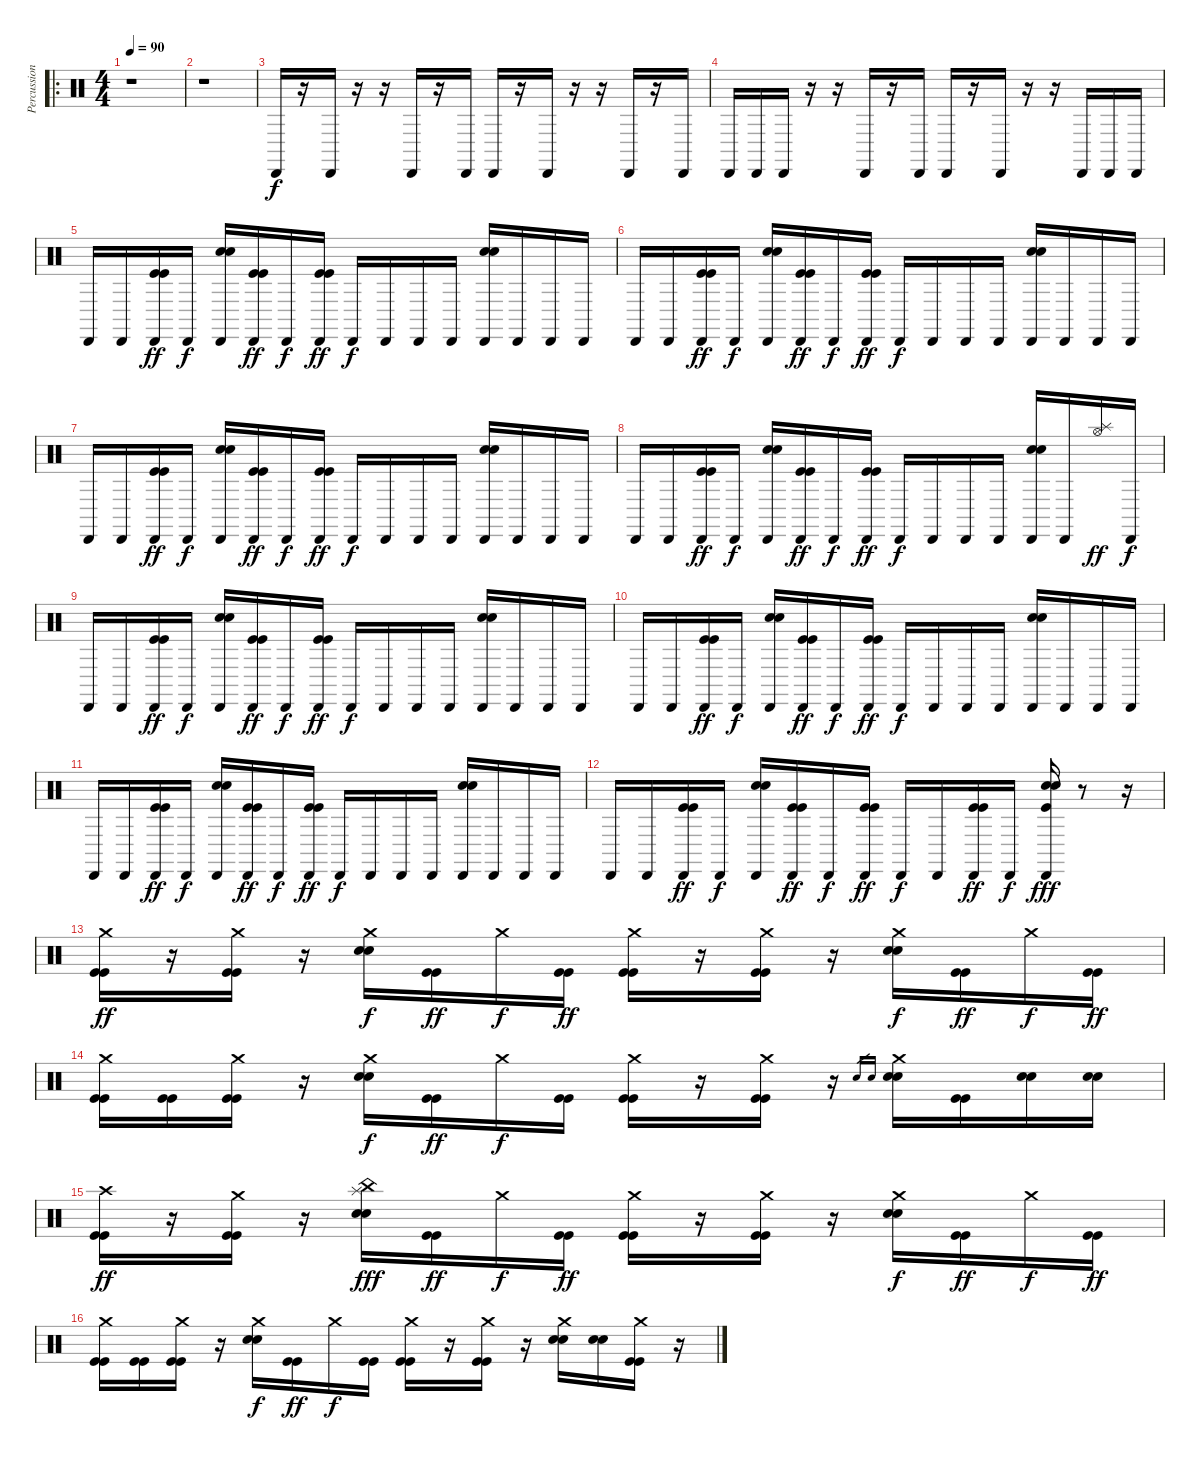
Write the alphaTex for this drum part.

\track ("Percussions" "Percussion") {instrument percussion}
\staff {score}
\articulation defaults
\ro
\ts (4 4)
\tempo 90
\clef neutral
\ks c
r.1{dy f} |
r.1 |
"Cabasa (hit)".16 r.16 "Cabasa (hit)".16 r.16 r.16 "Cabasa (hit)".16 r.16 "Cabasa (hit)".16 "Cabasa (hit)".16 r.16 "Cabasa (hit)".16 r.16 r.16 "Cabasa (hit)".16 r.16 "Cabasa (hit)".16 |
"Cabasa (hit)".16 "Cabasa (hit)".16 "Cabasa (hit)".16 r.16 r.16 "Cabasa (hit)".16 r.16 "Cabasa (hit)".16 "Cabasa (hit)".16 r.16 "Cabasa (hit)".16 r.16 r.16 "Cabasa (hit)".16 "Cabasa (hit)".16 "Cabasa (hit)".16 |
"Cabasa (hit)".16 "Cabasa (hit)".16 ("Cabasa (hit)" "Kick (hit)" "Kick (hit)").16{dy ff} "Cabasa (hit)".16{dy f} ("Cabasa (hit)" "Electric Snare (hit)" "Electric Snare (hit)").16 ("Cabasa (hit)" "Kick (hit)" "Kick (hit)").16{dy ff} "Cabasa (hit)".16{dy f} ("Cabasa (hit)" "Kick (hit)" "Kick (hit)").16{dy ff} "Cabasa (hit)".16{dy f} "Cabasa (hit)".16 "Cabasa (hit)".16 "Cabasa (hit)".16 ("Cabasa (hit)" "Electric Snare (hit)" "Electric Snare (hit)").16 "Cabasa (hit)".16 "Cabasa (hit)".16 "Cabasa (hit)".16 |
"Cabasa (hit)".16 "Cabasa (hit)".16 ("Cabasa (hit)" "Kick (hit)" "Kick (hit)").16{dy ff} "Cabasa (hit)".16{dy f} ("Cabasa (hit)" "Electric Snare (hit)" "Electric Snare (hit)").16 ("Cabasa (hit)" "Kick (hit)" "Kick (hit)").16{dy ff} "Cabasa (hit)".16{dy f} ("Cabasa (hit)" "Kick (hit)" "Kick (hit)").16{dy ff} "Cabasa (hit)".16{dy f} "Cabasa (hit)".16 "Cabasa (hit)".16 "Cabasa (hit)".16 ("Cabasa (hit)" "Electric Snare (hit)" "Electric Snare (hit)").16 "Cabasa (hit)".16 "Cabasa (hit)".16 "Cabasa (hit)".16 |
"Cabasa (hit)".16 "Cabasa (hit)".16 ("Cabasa (hit)" "Kick (hit)" "Kick (hit)").16{dy ff} "Cabasa (hit)".16{dy f} ("Cabasa (hit)" "Electric Snare (hit)" "Electric Snare (hit)").16 ("Cabasa (hit)" "Kick (hit)" "Kick (hit)").16{dy ff} "Cabasa (hit)".16{dy f} ("Cabasa (hit)" "Kick (hit)" "Kick (hit)").16{dy ff} "Cabasa (hit)".16{dy f} "Cabasa (hit)".16 "Cabasa (hit)".16 "Cabasa (hit)".16 ("Cabasa (hit)" "Electric Snare (hit)" "Electric Snare (hit)").16 "Cabasa (hit)".16 "Cabasa (hit)".16 "Cabasa (hit)".16 |
"Cabasa (hit)".16 "Cabasa (hit)".16 ("Cabasa (hit)" "Kick (hit)" "Kick (hit)").16{dy ff} "Cabasa (hit)".16{dy f} ("Cabasa (hit)" "Electric Snare (hit)" "Electric Snare (hit)").16 ("Cabasa (hit)" "Kick (hit)" "Kick (hit)").16{dy ff} "Cabasa (hit)".16{dy f} ("Cabasa (hit)" "Kick (hit)" "Kick (hit)").16{dy ff} "Cabasa (hit)".16{dy f} "Cabasa (hit)".16 "Cabasa (hit)".16 "Cabasa (hit)".16 ("Cabasa (hit)" "Electric Snare (hit)" "Electric Snare (hit)").16 "Cabasa (hit)".16 ("Splash (hit)" "Hi-Hat (open)").16{dy ff} "Cabasa (hit)".16{dy f} |
"Cabasa (hit)".16 "Cabasa (hit)".16 ("Cabasa (hit)" "Kick (hit)" "Kick (hit)").16{dy ff} "Cabasa (hit)".16{dy f} ("Cabasa (hit)" "Electric Snare (hit)" "Electric Snare (hit)").16 ("Cabasa (hit)" "Kick (hit)" "Kick (hit)").16{dy ff} "Cabasa (hit)".16{dy f} ("Cabasa (hit)" "Kick (hit)" "Kick (hit)").16{dy ff} "Cabasa (hit)".16{dy f} "Cabasa (hit)".16 "Cabasa (hit)".16 "Cabasa (hit)".16 ("Cabasa (hit)" "Electric Snare (hit)" "Electric Snare (hit)").16 "Cabasa (hit)".16 "Cabasa (hit)".16 "Cabasa (hit)".16 |
"Cabasa (hit)".16 "Cabasa (hit)".16 ("Cabasa (hit)" "Kick (hit)" "Kick (hit)").16{dy ff} "Cabasa (hit)".16{dy f} ("Cabasa (hit)" "Electric Snare (hit)" "Electric Snare (hit)").16 ("Cabasa (hit)" "Kick (hit)" "Kick (hit)").16{dy ff} "Cabasa (hit)".16{dy f} ("Cabasa (hit)" "Kick (hit)" "Kick (hit)").16{dy ff} "Cabasa (hit)".16{dy f} "Cabasa (hit)".16 "Cabasa (hit)".16 "Cabasa (hit)".16 ("Cabasa (hit)" "Electric Snare (hit)" "Electric Snare (hit)").16 "Cabasa (hit)".16 "Cabasa (hit)".16 "Cabasa (hit)".16 |
"Cabasa (hit)".16 "Cabasa (hit)".16 ("Cabasa (hit)" "Kick (hit)" "Kick (hit)").16{dy ff} "Cabasa (hit)".16{dy f} ("Cabasa (hit)" "Electric Snare (hit)" "Electric Snare (hit)").16 ("Cabasa (hit)" "Kick (hit)" "Kick (hit)").16{dy ff} "Cabasa (hit)".16{dy f} ("Cabasa (hit)" "Kick (hit)" "Kick (hit)").16{dy ff} "Cabasa (hit)".16{dy f} "Cabasa (hit)".16 "Cabasa (hit)".16 "Cabasa (hit)".16 ("Cabasa (hit)" "Electric Snare (hit)" "Electric Snare (hit)").16 "Cabasa (hit)".16 "Cabasa (hit)".16 "Cabasa (hit)".16 |
"Cabasa (hit)".16 "Cabasa (hit)".16 ("Cabasa (hit)" "Kick (hit)" "Kick (hit)").16{dy ff} "Cabasa (hit)".16{dy f} ("Cabasa (hit)" "Electric Snare (hit)" "Electric Snare (hit)").16 ("Cabasa (hit)" "Kick (hit)" "Kick (hit)").16{dy ff} "Cabasa (hit)".16{dy f} ("Cabasa (hit)" "Kick (hit)" "Kick (hit)").16{dy ff} "Cabasa (hit)".16{dy f} "Cabasa (hit)".16 ("Cabasa (hit)" "Kick (hit)" "Kick (hit)").16{dy ff} "Cabasa (hit)".16{dy f} ("Cabasa (hit)" "Electric Snare (hit)" "Electric Snare (hit)" "Kick (hit)").16{dy fff} r.8 r.16 |
("Crash medium (hit)" "Kick (hit)" "Kick (hit)").16{dy ff} r.16 ("Crash medium (hit)" "Kick (hit)" "Kick (hit)").16 r.16 ("Crash medium (hit)" "Electric Snare (hit)" "Electric Snare (hit)").16{dy f} ("Kick (hit)" "Kick (hit)").16{dy ff} "Crash medium (hit)".16{dy f} ("Kick (hit)" "Kick (hit)").16{dy ff} ("Crash medium (hit)" "Kick (hit)" "Kick (hit)").16 r.16 ("Crash medium (hit)" "Kick (hit)" "Kick (hit)").16 r.16 ("Crash medium (hit)" "Electric Snare (hit)" "Electric Snare (hit)").16{dy f} ("Kick (hit)" "Kick (hit)").16{dy ff} "Crash medium (hit)".16{dy f} ("Kick (hit)" "Kick (hit)").16{dy ff} |
("Crash medium (hit)" "Kick (hit)" "Kick (hit)").16 ("Kick (hit)" "Kick (hit)").16 ("Crash medium (hit)" "Kick (hit)" "Kick (hit)").16 r.16 ("Crash medium (hit)" "Electric Snare (hit)" "Electric Snare (hit)").16{dy f} ("Kick (hit)" "Kick (hit)").16{dy ff} "Crash medium (hit)".16{dy f} ("Kick (hit)" "Kick (hit)").16 ("Crash medium (hit)" "Kick (hit)" "Kick (hit)").16 r.16 ("Crash medium (hit)" "Kick (hit)" "Kick (hit)").16 r.16 "Electric Snare (hit)".16{gr} "Electric Snare (hit)".16{gr} ("Crash medium (hit)" "Electric Snare (hit)" "Electric Snare (hit)").16 ("Kick (hit)" "Kick (hit)").16 ("Electric Snare (hit)" "Electric Snare (hit)").16 ("Electric Snare (hit)" "Electric Snare (hit)").16 |
("Crash high (hit)" "Kick (hit)" "Kick (hit)").16{dy ff} r.16 ("Crash medium (hit)" "Kick (hit)" "Kick (hit)").16 r.16 ("China (hit)" "Splash (hit)" "Electric Snare (hit)" "Electric Snare (hit)").16{dy fff} ("Kick (hit)" "Kick (hit)").16{dy ff} "Crash medium (hit)".16{dy f} ("Kick (hit)" "Kick (hit)").16{dy ff} ("Crash medium (hit)" "Kick (hit)" "Kick (hit)").16 r.16 ("Crash medium (hit)" "Kick (hit)" "Kick (hit)").16 r.16 ("Crash medium (hit)" "Electric Snare (hit)" "Electric Snare (hit)").16{dy f} ("Kick (hit)" "Kick (hit)").16{dy ff} "Crash medium (hit)".16{dy f} ("Kick (hit)" "Kick (hit)").16{dy ff} |
("Crash medium (hit)" "Kick (hit)" "Kick (hit)").16 ("Kick (hit)" "Kick (hit)").16 ("Crash medium (hit)" "Kick (hit)" "Kick (hit)").16 r.16 ("Crash medium (hit)" "Electric Snare (hit)" "Electric Snare (hit)").16{dy f} ("Kick (hit)" "Kick (hit)").16{dy ff} "Crash medium (hit)".16{dy f} ("Kick (hit)" "Kick (hit)").16 ("Crash medium (hit)" "Kick (hit)" "Kick (hit)").16 r.16 ("Crash medium (hit)" "Kick (hit)" "Kick (hit)").16 r.16 ("Crash medium (hit)" "Electric Snare (hit)" "Electric Snare (hit)").16 ("Electric Snare (hit)" "Electric Snare (hit)").16 ("Crash medium (hit)" "Kick (hit)" "Kick (hit)").16 r.16
